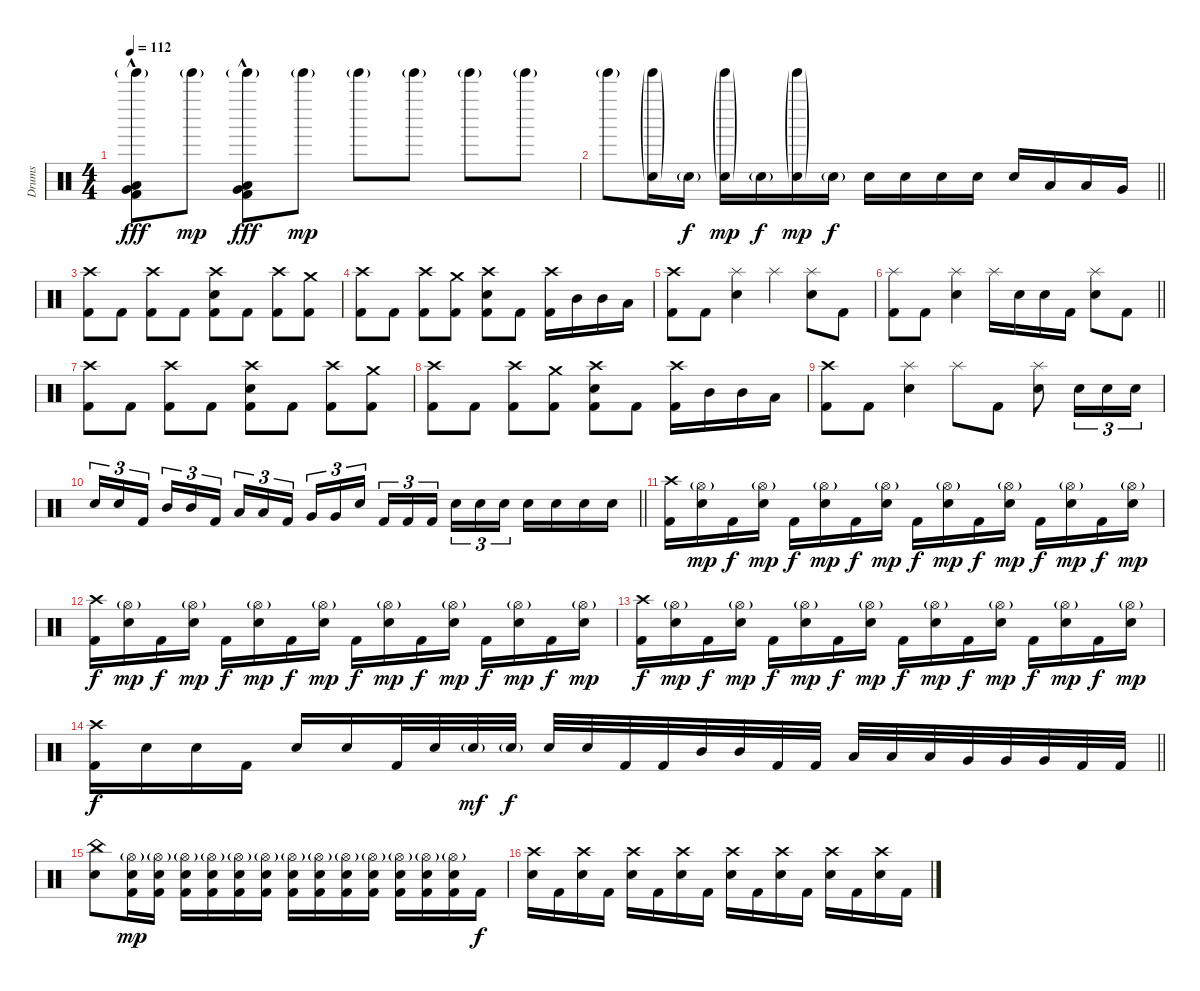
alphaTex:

\track ("Drums" "Drums") {instrument percussion}
\staff {score}
\articulation defaults
\ts (4 4)
\tempo 112
\clef neutral
\ks c
("Tinkle Bell (hit)"{g} "Low Tom (hit)"{hac} "Very Low Tom (hit)"{hac} "Kick (hit) 2"{hac}).8{dy fff} "Tinkle Bell (hit)"{g}.8{dy mp} ("Tinkle Bell (hit)"{g} "Low Tom (hit)"{hac} "Very Low Tom (hit)"{hac} "Kick (hit) 2"{hac}).8{dy fff} "Tinkle Bell (hit)"{g}.8{dy mp} "Tinkle Bell (hit)"{g}.8 "Tinkle Bell (hit)"{g}.8 "Tinkle Bell (hit)"{g}.8 "Tinkle Bell (hit)"{g}.8 |
\barLineRight lightlight "Tinkle Bell (hit)"{g}.8
("Tinkle Bell (hit)"{g} "Snare (hit) 2"{g}).16 "Snare (hit) 2"{g}.16{dy f} ("Tinkle Bell (hit)"{g} "Snare (hit) 2"{g}).16{dy mp} "Snare (hit) 2"{g}.16{dy f} ("Tinkle Bell (hit)"{g} "Snare (hit) 2"{g}).16{dy mp} "Electric Snare (hit)"{g}.16{dy f} "Electric Snare (hit)".16 "Electric Snare (hit)".16 "Electric Snare (hit)".16 "Electric Snare (hit)".16 "Electric Snare (hit)".16 "Low Tom (hit)".16 "Low Tom (hit)".16 "Very Low Tom (hit)".16 |
("Crash high (hit)" "Kick (hit) 2").8 "Kick (hit) 2".8 ("Crash high (hit)" "Kick (hit) 2").8 "Kick (hit) 2".8 ("Crash high (hit)" "Electric Snare (hit)" "Kick (hit) 2").8 "Kick (hit) 2".8 ("Crash high (hit)" "Kick (hit) 2").8 ("Crash medium (hit)" "Kick (hit) 2").8 |
("Crash high (hit)" "Kick (hit) 2").8 "Kick (hit) 2".8 ("Crash high (hit)" "Kick (hit) 2").8 ("Crash medium (hit)" "Kick (hit) 2").8 ("Crash high (hit)" "Electric Snare (hit)" "Kick (hit) 2").8 "Kick (hit) 2".8 ("Crash high (hit)" "Kick (hit) 2").16 "Mid Tom (hit)".16 "Mid Tom (hit)".16 "Low Tom (hit)".16 |
("Crash high (hit)" "Kick (hit) 2").8 "Kick (hit) 2".8 ("Splash (hit)" "Electric Snare (hit)").4 "Splash (hit)".4 ("Splash (hit)" "Electric Snare (hit)").8 "Kick (hit) 2".8 |
\barLineRight lightlight
("Splash (hit)" "Kick (hit) 2").8 "Kick (hit) 2".8 ("Splash (hit)" "Electric Snare (hit)").4 "Splash (hit)".16 "Electric Snare (hit)".16 "Electric Snare (hit)".16 "Kick (hit) 2".16 ("Splash (hit)" "Electric Snare (hit)").8 "Kick (hit) 2".8 |
("Crash high (hit)" "Kick (hit) 2").8 "Kick (hit) 2".8 ("Crash high (hit)" "Kick (hit) 2").8 "Kick (hit) 2".8 ("Crash high (hit)" "Electric Snare (hit)" "Kick (hit) 2").8 "Kick (hit) 2".8 ("Crash high (hit)" "Kick (hit) 2").8 ("Crash medium (hit)" "Kick (hit) 2").8 |
("Crash high (hit)" "Kick (hit) 2").8 "Kick (hit) 2".8 ("Crash high (hit)" "Kick (hit) 2").8 ("Crash medium (hit)" "Kick (hit) 2").8 ("Crash high (hit)" "Electric Snare (hit)" "Kick (hit) 2").8 "Kick (hit) 2".8 ("Crash high (hit)" "Kick (hit) 2").16 "Mid Tom (hit)".16 "Mid Tom (hit)".16 "Low Tom (hit)".16 |
("Crash high (hit)" "Kick (hit) 2").8 "Kick (hit) 2".8 ("Splash (hit)" "Electric Snare (hit)").4 "Splash (hit)".8 "Kick (hit) 2".8 ("Splash (hit)" "Electric Snare (hit)").8 "Electric Snare (hit)".16{tu (3 2)} "Electric Snare (hit)".16{tu (3 2)} "Electric Snare (hit)".16{tu (3 2)} |
\barLineRight lightlight "Electric Snare (hit)".16{tu (3 2)} "Electric Snare (hit)".16{tu (3 2)} "Kick (hit) 2".16{tu (3 2) beam splitsecondary} "Mid Tom (hit)".16{tu (3 2)} "Mid Tom (hit)".16{tu (3 2)} "Kick (hit) 2".16{tu (3 2)} "Low Tom (hit)".16{tu (3 2)} "Low Tom (hit)".16{tu (3 2)} "Kick (hit) 2".16{tu (3 2) beam splitsecondary} "Very Low Tom (hit)".16{tu (3 2)} "Very Low Tom (hit)".16{tu (3 2)} "Electric Snare (hit)".16{tu (3 2)} "Kick (hit) 2".16{tu (3 2)} "Kick (hit) 2".16{tu (3 2)} "Kick (hit) 2".16{tu (3 2) beam splitsecondary} "Electric Snare (hit)".16{tu (3 2)} "Electric Snare (hit)".16{tu (3 2)} "Electric Snare (hit)".16{tu (3 2)} "Electric Snare (hit)".16 "Electric Snare (hit)".16 "Electric Snare (hit)".16 "Electric Snare (hit)".16
|
("Crash high (hit)" "Kick (hit) 2").16 ("Hi-Hat (open)"{g} "Electric Snare (hit)").16{dy mp} "Kick (hit) 2".16{dy f} ("Hi-Hat (open)"{g} "Electric Snare (hit)").16{dy mp} "Kick (hit) 2".16{dy f} ("Hi-Hat (open)"{g} "Electric Snare (hit)").16{dy mp} "Kick (hit) 2".16{dy f} ("Hi-Hat (open)"{g} "Electric Snare (hit)").16{dy mp} "Kick (hit) 2".16{dy f} ("Hi-Hat (open)"{g} "Electric Snare (hit)").16{dy mp} "Kick (hit) 2".16{dy f} ("Hi-Hat (open)"{g} "Electric Snare (hit)").16{dy mp} "Kick (hit) 2".16{dy f} ("Hi-Hat (open)"{g} "Electric Snare (hit)").16{dy mp} "Kick (hit) 2".16{dy f} ("Hi-Hat (open)"{g} "Electric Snare (hit)").16{dy mp} |
("Crash high (hit)" "Kick (hit) 2").16{dy f} ("Hi-Hat (open)"{g} "Electric Snare (hit)").16{dy mp} "Kick (hit) 2".16{dy f} ("Hi-Hat (open)"{g} "Electric Snare (hit)").16{dy mp} "Kick (hit) 2".16{dy f} ("Hi-Hat (open)"{g} "Electric Snare (hit)").16{dy mp} "Kick (hit) 2".16{dy f} ("Hi-Hat (open)"{g} "Electric Snare (hit)").16{dy mp} "Kick (hit) 2".16{dy f} ("Hi-Hat (open)"{g} "Electric Snare (hit)").16{dy mp} "Kick (hit) 2".16{dy f} ("Hi-Hat (open)"{g} "Electric Snare (hit)").16{dy mp} "Kick (hit) 2".16{dy f} ("Hi-Hat (open)"{g} "Electric Snare (hit)").16{dy mp} "Kick (hit) 2".16{dy f} ("Hi-Hat (open)"{g} "Electric Snare (hit)").16{dy mp} |
("Crash high (hit)" "Kick (hit) 2").16{dy f} ("Hi-Hat (open)"{g} "Electric Snare (hit)").16{dy mp} "Kick (hit) 2".16{dy f} ("Hi-Hat (open)"{g} "Electric Snare (hit)").16{dy mp} "Kick (hit) 2".16{dy f} ("Hi-Hat (open)"{g} "Electric Snare (hit)").16{dy mp} "Kick (hit) 2".16{dy f} ("Hi-Hat (open)"{g} "Electric Snare (hit)").16{dy mp} "Kick (hit) 2".16{dy f} ("Hi-Hat (open)"{g} "Electric Snare (hit)").16{dy mp} "Kick (hit) 2".16{dy f} ("Hi-Hat (open)"{g} "Electric Snare (hit)").16{dy mp} "Kick (hit) 2".16{dy f} ("Hi-Hat (open)"{g} "Electric Snare (hit)").16{dy mp} "Kick (hit) 2".16{dy f} ("Hi-Hat (open)"{g} "Electric Snare (hit)").16{dy mp} |
\barLineRight lightlight
("Crash high (hit)" "Kick (hit) 2").16{dy f} "Electric Snare (hit)".16 "Electric Snare (hit)".16 "Kick (hit) 2".16 "Electric Snare (hit)".16 "Electric Snare (hit)".16 "Kick (hit) 2".32 "Electric Snare (hit)".32 "Electric Snare (hit)"{g}.32{dy mf} "Electric Snare (hit)"{g}.32{dy f} "Electric Snare (hit)".32 "Electric Snare (hit)".32 "Kick (hit) 2".32 "Kick (hit) 2".32 "Mid Tom (hit)".32 "Mid Tom (hit)".32 "Kick (hit) 2".32 "Kick (hit) 2".32 "Low Tom (hit)".32 "Low Tom (hit)".32 "Low Tom (hit)".32 "Very Low Tom (hit)".32 "Very Low Tom (hit)".32 "Very Low Tom (hit)".32 "Kick (hit) 2".32 "Kick (hit) 2".32 |
("China (hit)" "Electric Snare (hit)").8 ("Hi-Hat (open)"{g} "Electric Snare (hit)" "Kick (hit) 2").16{dy mp} ("Hi-Hat (open)"{g} "Electric Snare (hit)" "Kick (hit) 2").16 ("Hi-Hat (open)"{g} "Electric Snare (hit)" "Kick (hit) 2").16 ("Hi-Hat (open)"{g} "Electric Snare (hit)" "Kick (hit) 2").16 ("Hi-Hat (open)"{g} "Electric Snare (hit)" "Kick (hit) 2").16 ("Hi-Hat (open)"{g} "Electric Snare (hit)" "Kick (hit) 2").16 ("Hi-Hat (open)"{g} "Electric Snare (hit)" "Kick (hit) 2").16 ("Hi-Hat (open)"{g} "Electric Snare (hit)" "Kick (hit) 2").16 ("Hi-Hat (open)"{g} "Electric Snare (hit)" "Kick (hit) 2").16 ("Hi-Hat (open)"{g} "Electric Snare (hit)" "Kick (hit) 2").16 ("Hi-Hat (open)"{g} "Electric Snare (hit)" "Kick (hit) 2").16 ("Hi-Hat (open)"{g} "Electric Snare (hit)" "Kick (hit) 2").16 ("Hi-Hat (open)"{g} "Electric Snare (hit)" "Kick (hit) 2").16 "Kick (hit) 2".16{dy f} |
("Crash high (hit)" "Electric Snare (hit)").16 "Kick (hit) 2".16 ("Crash high (hit)" "Electric Snare (hit)").16 "Kick (hit) 2".16 ("Crash high (hit)" "Electric Snare (hit)").16 "Kick (hit) 2".16 ("Crash high (hit)" "Electric Snare (hit)").16 "Kick (hit) 2".16 ("Crash high (hit)" "Electric Snare (hit)").16 "Kick (hit) 2".16 ("Crash high (hit)" "Electric Snare (hit)").16 "Kick (hit) 2".16 ("Crash high (hit)" "Electric Snare (hit)").16 "Kick (hit) 2".16 ("Crash high (hit)" "Electric Snare (hit)").16 "Kick (hit) 2".16
